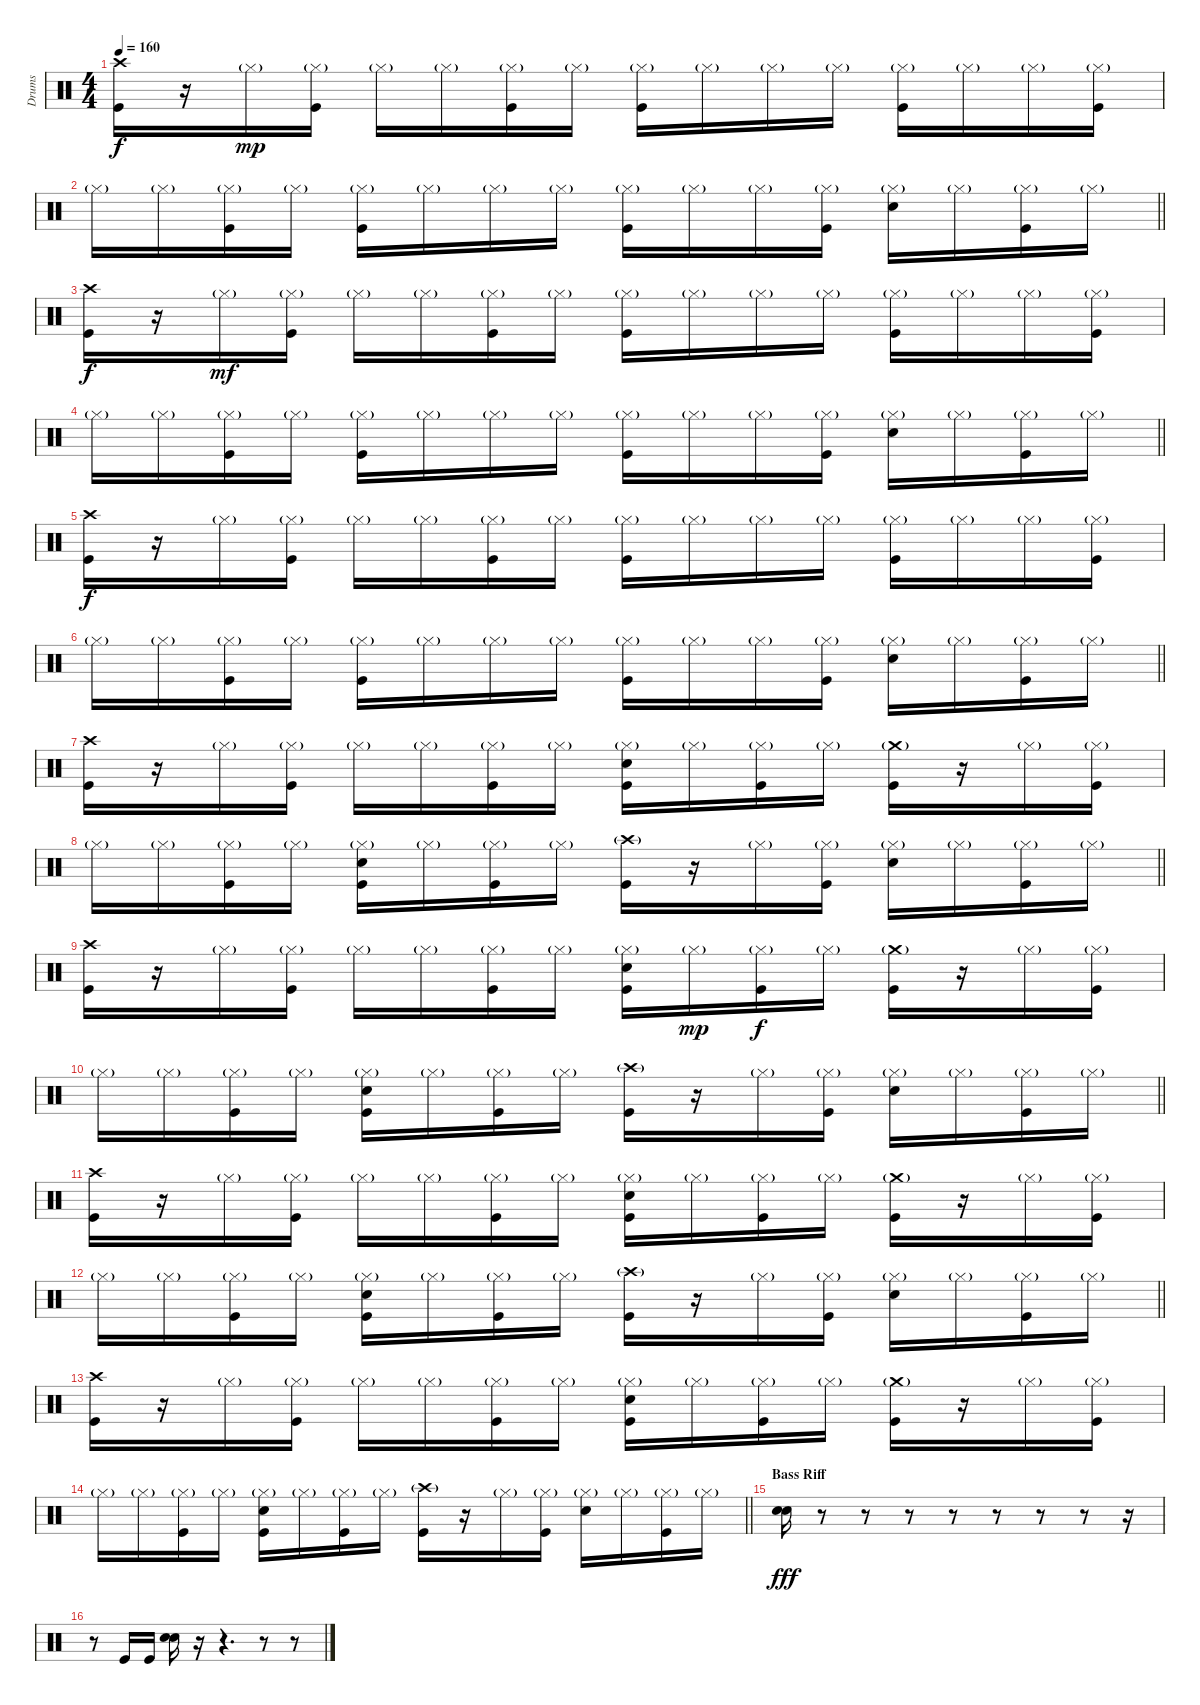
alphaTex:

\track ("Drums" "Drums") {instrument percussion}
\staff {score}
\articulation defaults
\ts (4 4)
\tempo 160
\clef neutral
\ks c
("Crash high (hit)" "Kick (hit)").16{dy f} r.16 "Hi-Hat (closed)"{g}.16{dy mp} ("Hi-Hat (closed)"{g} "Kick (hit)").16 "Hi-Hat (closed)"{g}.16 "Hi-Hat (closed)"{g}.16 ("Hi-Hat (closed)"{g} "Kick (hit)").16 "Hi-Hat (closed)"{g}.16 ("Hi-Hat (closed)"{g} "Kick (hit)").16 "Hi-Hat (closed)"{g}.16 "Hi-Hat (closed)"{g}.16 "Hi-Hat (closed)"{g}.16 ("Hi-Hat (closed)"{g} "Kick (hit)").16 "Hi-Hat (closed)"{g}.16 "Hi-Hat (closed)"{g}.16 ("Hi-Hat (closed)"{g} "Kick (hit)").16 |
\barLineRight lightlight "Hi-Hat (closed)"{g}.16 "Hi-Hat (closed)"{g}.16
("Hi-Hat (closed)"{g} "Kick (hit)").16 "Hi-Hat (closed)"{g}.16 ("Hi-Hat (closed)"{g} "Kick (hit)").16 "Hi-Hat (closed)"{g}.16 "Hi-Hat (closed)"{g}.16 "Hi-Hat (closed)"{g}.16 ("Hi-Hat (closed)"{g} "Kick (hit)").16 "Hi-Hat (closed)"{g}.16 "Hi-Hat (closed)"{g}.16 ("Hi-Hat (closed)"{g} "Kick (hit)").16 ("Hi-Hat (closed)"{g} "Snare (hit) 2").16 "Hi-Hat (closed)"{g}.16 ("Hi-Hat (closed)"{g} "Kick (hit)").16 "Hi-Hat (closed)"{g}.16 |
("Crash high (hit)" "Kick (hit)").16{dy f} r.16 "Hi-Hat (closed)"{g}.16{dy mf} ("Hi-Hat (closed)"{g} "Kick (hit)").16 "Hi-Hat (closed)"{g}.16 "Hi-Hat (closed)"{g}.16 ("Hi-Hat (closed)"{g} "Kick (hit)").16 "Hi-Hat (closed)"{g}.16 ("Hi-Hat (closed)"{g} "Kick (hit)").16 "Hi-Hat (closed)"{g}.16 "Hi-Hat (closed)"{g}.16 "Hi-Hat (closed)"{g}.16 ("Hi-Hat (closed)"{g} "Kick (hit)").16 "Hi-Hat (closed)"{g}.16 "Hi-Hat (closed)"{g}.16 ("Hi-Hat (closed)"{g} "Kick (hit)").16 |
\barLineRight lightlight "Hi-Hat (closed)"{g}.16 "Hi-Hat (closed)"{g}.16
("Hi-Hat (closed)"{g} "Kick (hit)").16 "Hi-Hat (closed)"{g}.16 ("Hi-Hat (closed)"{g} "Kick (hit)").16 "Hi-Hat (closed)"{g}.16 "Hi-Hat (closed)"{g}.16 "Hi-Hat (closed)"{g}.16 ("Hi-Hat (closed)"{g} "Kick (hit)").16 "Hi-Hat (closed)"{g}.16 "Hi-Hat (closed)"{g}.16 ("Hi-Hat (closed)"{g} "Kick (hit)").16 ("Hi-Hat (closed)"{g} "Snare (hit) 2").16 "Hi-Hat (closed)"{g}.16 ("Hi-Hat (closed)"{g} "Kick (hit)").16 "Hi-Hat (closed)"{g}.16 |
("Crash high (hit)" "Kick (hit)").16{dy f} r.16 "Hi-Hat (closed)"{g}.16 ("Hi-Hat (closed)"{g} "Kick (hit)").16 "Hi-Hat (closed)"{g}.16 "Hi-Hat (closed)"{g}.16 ("Hi-Hat (closed)"{g} "Kick (hit)").16 "Hi-Hat (closed)"{g}.16 ("Hi-Hat (closed)"{g} "Kick (hit)").16 "Hi-Hat (closed)"{g}.16 "Hi-Hat (closed)"{g}.16 "Hi-Hat (closed)"{g}.16 ("Hi-Hat (closed)"{g} "Kick (hit)").16 "Hi-Hat (closed)"{g}.16 "Hi-Hat (closed)"{g}.16 ("Hi-Hat (closed)"{g} "Kick (hit)").16 |
\barLineRight lightlight "Hi-Hat (closed)"{g}.16 "Hi-Hat (closed)"{g}.16
("Hi-Hat (closed)"{g} "Kick (hit)").16 "Hi-Hat (closed)"{g}.16 ("Hi-Hat (closed)"{g} "Kick (hit)").16 "Hi-Hat (closed)"{g}.16 "Hi-Hat (closed)"{g}.16 "Hi-Hat (closed)"{g}.16 ("Hi-Hat (closed)"{g} "Kick (hit)").16 "Hi-Hat (closed)"{g}.16 "Hi-Hat (closed)"{g}.16 ("Hi-Hat (closed)"{g} "Kick (hit)").16 ("Hi-Hat (closed)"{g} "Snare (hit) 2").16 "Hi-Hat (closed)"{g}.16 ("Hi-Hat (closed)"{g} "Kick (hit)").16 "Hi-Hat (closed)"{g}.16 |
("Crash high (hit)" "Kick (hit)").16 r.16 "Hi-Hat (closed)"{g}.16 ("Hi-Hat (closed)"{g} "Kick (hit)").16 "Hi-Hat (closed)"{g}.16 "Hi-Hat (closed)"{g}.16 ("Hi-Hat (closed)"{g} "Kick (hit)").16 "Hi-Hat (closed)"{g}.16 ("Hi-Hat (closed)"{g} "Kick (hit)" "Snare (hit) 2").16 "Hi-Hat (closed)"{g}.16 ("Hi-Hat (closed)"{g} "Kick (hit)").16 "Hi-Hat (closed)"{g}.16 ("Crash medium (hit)"{g} "Kick (hit)").16 r.16 "Hi-Hat (closed)"{g}.16 ("Hi-Hat (closed)"{g} "Kick (hit)").16 |
\barLineRight lightlight "Hi-Hat (closed)"{g}.16 "Hi-Hat (closed)"{g}.16
("Hi-Hat (closed)"{g} "Kick (hit)").16 "Hi-Hat (closed)"{g}.16 ("Hi-Hat (closed)"{g} "Kick (hit)" "Snare (hit) 2").16 "Hi-Hat (closed)"{g}.16 ("Hi-Hat (closed)"{g} "Kick (hit)").16 "Hi-Hat (closed)"{g}.16 ("Crash high (hit)"{g} "Kick (hit)").16 r.16 "Hi-Hat (closed)"{g}.16 ("Hi-Hat (closed)"{g} "Kick (hit)").16 ("Hi-Hat (closed)"{g} "Snare (hit) 2").16 "Hi-Hat (closed)"{g}.16 ("Hi-Hat (closed)"{g} "Kick (hit)").16 "Hi-Hat (closed)"{g}.16 |
("Crash high (hit)" "Kick (hit)").16 r.16 "Hi-Hat (closed)"{g}.16 ("Hi-Hat (closed)"{g} "Kick (hit)").16 "Hi-Hat (closed)"{g}.16 "Hi-Hat (closed)"{g}.16 ("Hi-Hat (closed)"{g} "Kick (hit)").16 "Hi-Hat (closed)"{g}.16 ("Hi-Hat (closed)"{g} "Kick (hit)" "Snare (hit) 2").16 "Hi-Hat (closed)"{g}.16{dy mp} ("Hi-Hat (closed)"{g} "Kick (hit)").16{dy f} "Hi-Hat (closed)"{g}.16 ("Crash medium (hit)"{g} "Kick (hit)").16 r.16 "Hi-Hat (closed)"{g}.16 ("Hi-Hat (closed)"{g} "Kick (hit)").16 |
\barLineRight lightlight "Hi-Hat (closed)"{g}.16 "Hi-Hat (closed)"{g}.16
("Hi-Hat (closed)"{g} "Kick (hit)").16 "Hi-Hat (closed)"{g}.16 ("Hi-Hat (closed)"{g} "Kick (hit)" "Snare (hit) 2").16 "Hi-Hat (closed)"{g}.16 ("Hi-Hat (closed)"{g} "Kick (hit)").16 "Hi-Hat (closed)"{g}.16 ("Crash high (hit)"{g} "Kick (hit)").16 r.16 "Hi-Hat (closed)"{g}.16 ("Hi-Hat (closed)"{g} "Kick (hit)").16 ("Hi-Hat (closed)"{g} "Snare (hit) 2").16 "Hi-Hat (closed)"{g}.16 ("Hi-Hat (closed)"{g} "Kick (hit)").16 "Hi-Hat (closed)"{g}.16 |
("Crash high (hit)" "Kick (hit)").16 r.16 "Hi-Hat (closed)"{g}.16 ("Hi-Hat (closed)"{g} "Kick (hit)").16 "Hi-Hat (closed)"{g}.16 "Hi-Hat (closed)"{g}.16 ("Hi-Hat (closed)"{g} "Kick (hit)").16 "Hi-Hat (closed)"{g}.16 ("Hi-Hat (closed)"{g} "Kick (hit)" "Snare (hit) 2").16 "Hi-Hat (closed)"{g}.16 ("Hi-Hat (closed)"{g} "Kick (hit)").16 "Hi-Hat (closed)"{g}.16 ("Crash medium (hit)"{g} "Kick (hit)").16 r.16 "Hi-Hat (closed)"{g}.16 ("Hi-Hat (closed)"{g} "Kick (hit)").16 |
\barLineRight lightlight "Hi-Hat (closed)"{g}.16 "Hi-Hat (closed)"{g}.16
("Hi-Hat (closed)"{g} "Kick (hit)").16 "Hi-Hat (closed)"{g}.16 ("Hi-Hat (closed)"{g} "Kick (hit)" "Snare (hit) 2").16 "Hi-Hat (closed)"{g}.16 ("Hi-Hat (closed)"{g} "Kick (hit)").16 "Hi-Hat (closed)"{g}.16 ("Crash high (hit)"{g} "Kick (hit)").16 r.16 "Hi-Hat (closed)"{g}.16 ("Hi-Hat (closed)"{g} "Kick (hit)").16 ("Hi-Hat (closed)"{g} "Snare (hit) 2").16 "Hi-Hat (closed)"{g}.16 ("Hi-Hat (closed)"{g} "Kick (hit)").16 "Hi-Hat (closed)"{g}.16 |
("Crash high (hit)" "Kick (hit)").16 r.16 "Hi-Hat (closed)"{g}.16 ("Hi-Hat (closed)"{g} "Kick (hit)").16 "Hi-Hat (closed)"{g}.16 "Hi-Hat (closed)"{g}.16 ("Hi-Hat (closed)"{g} "Kick (hit)").16 "Hi-Hat (closed)"{g}.16 ("Hi-Hat (closed)"{g} "Kick (hit)" "Snare (hit) 2").16 "Hi-Hat (closed)"{g}.16 ("Hi-Hat (closed)"{g} "Kick (hit)").16 "Hi-Hat (closed)"{g}.16 ("Crash medium (hit)"{g} "Kick (hit)").16 r.16 "Hi-Hat (closed)"{g}.16 ("Hi-Hat (closed)"{g} "Kick (hit)").16 |
\barLineRight lightlight "Hi-Hat (closed)"{g}.16 "Hi-Hat (closed)"{g}.16
("Hi-Hat (closed)"{g} "Kick (hit)").16 "Hi-Hat (closed)"{g}.16 ("Hi-Hat (closed)"{g} "Kick (hit)" "Snare (hit) 2").16 "Hi-Hat (closed)"{g}.16 ("Hi-Hat (closed)"{g} "Kick (hit)").16 "Hi-Hat (closed)"{g}.16 ("Crash high (hit)"{g} "Kick (hit)").16 r.16 "Hi-Hat (closed)"{g}.16 ("Hi-Hat (closed)"{g} "Kick (hit)").16 ("Hi-Hat (closed)"{g} "Snare (hit) 2").16 "Hi-Hat (closed)"{g}.16 ("Hi-Hat (closed)"{g} "Kick (hit)").16 "Hi-Hat (closed)"{g}.16 |
\section ("" "Bass Riff")
("Snare (hit) 2" "Snare (hit) 2").16{dy fff} r.8 r.8 r.8 r.8 r.8 r.8 r.8 r.16 |
r.8 "Kick (hit)".16 "Kick (hit)".16 ("Snare (hit) 2" "Snare (hit) 2").16 r.16 r.4{d} r.8 r.8
